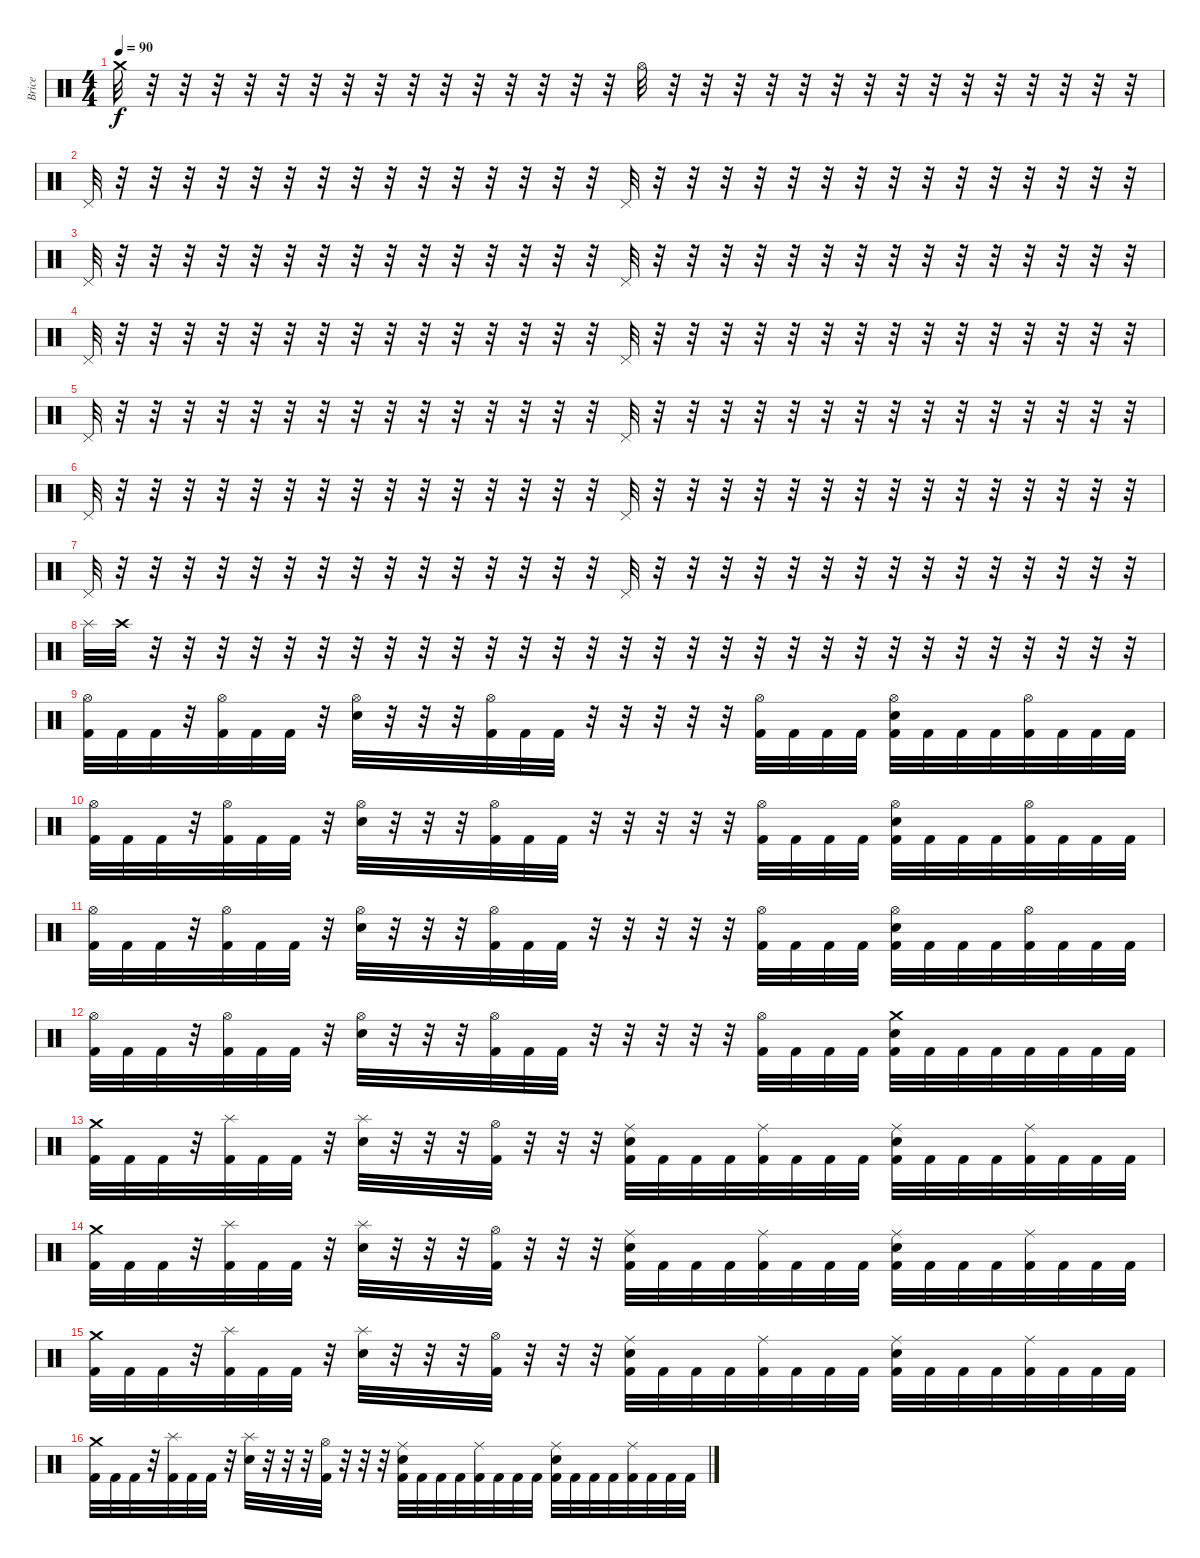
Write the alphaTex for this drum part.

\track ("Brice" "Brice") {instrument percussion}
\staff {score}
\articulation defaults
\ts (4 4)
\tempo 90
\clef neutral
\ks c "Crash medium (hit)".32{dy f}
r.32 r.32 r.32 r.32 r.32 r.32 r.32 r.32 r.32 r.32 r.32 r.32 r.32 r.32 r.32 "Hi-Hat (open)".32 r.32 r.32 r.32 r.32 r.32 r.32 r.32 r.32 r.32 r.32 r.32 r.32 r.32 r.32 r.32 |
"Pedal Hi-Hat (hit)".32 r.32 r.32 r.32 r.32 r.32 r.32 r.32 r.32 r.32 r.32 r.32 r.32 r.32 r.32 r.32 "Pedal Hi-Hat (hit)".32 r.32 r.32 r.32 r.32 r.32 r.32 r.32 r.32 r.32 r.32 r.32 r.32 r.32 r.32 r.32 |
"Pedal Hi-Hat (hit)".32 r.32 r.32 r.32 r.32 r.32 r.32 r.32 r.32 r.32 r.32 r.32 r.32 r.32 r.32 r.32 "Pedal Hi-Hat (hit)".32 r.32 r.32 r.32 r.32 r.32 r.32 r.32 r.32 r.32 r.32 r.32 r.32 r.32 r.32 r.32 |
"Pedal Hi-Hat (hit)".32 r.32 r.32 r.32 r.32 r.32 r.32 r.32 r.32 r.32 r.32 r.32 r.32 r.32 r.32 r.32 "Pedal Hi-Hat (hit)".32 r.32 r.32 r.32 r.32 r.32 r.32 r.32 r.32 r.32 r.32 r.32 r.32 r.32 r.32 r.32 |
"Pedal Hi-Hat (hit)".32 r.32 r.32 r.32 r.32 r.32 r.32 r.32 r.32 r.32 r.32 r.32 r.32 r.32 r.32 r.32 "Pedal Hi-Hat (hit)".32 r.32 r.32 r.32 r.32 r.32 r.32 r.32 r.32 r.32 r.32 r.32 r.32 r.32 r.32 r.32 |
"Pedal Hi-Hat (hit)".32 r.32 r.32 r.32 r.32 r.32 r.32 r.32 r.32 r.32 r.32 r.32 r.32 r.32 r.32 r.32 "Pedal Hi-Hat (hit)".32 r.32 r.32 r.32 r.32 r.32 r.32 r.32 r.32 r.32 r.32 r.32 r.32 r.32 r.32 r.32 |
"Pedal Hi-Hat (hit)".32 r.32 r.32 r.32 r.32 r.32 r.32 r.32 r.32 r.32 r.32 r.32 r.32 r.32 r.32 r.32 "Pedal Hi-Hat (hit)".32 r.32 r.32 r.32 r.32 r.32 r.32 r.32 r.32 r.32 r.32 r.32 r.32 r.32 r.32 r.32 |
"Splash (hit)".32 "Crash high (hit)".32 r.32 r.32 r.32 r.32 r.32 r.32 r.32 r.32 r.32 r.32 r.32 r.32 r.32 r.32 r.32 r.32 r.32 r.32 r.32 r.32 r.32 r.32 r.32 r.32 r.32 r.32 r.32 r.32 r.32 r.32 |
("Hi-Hat (open)" "Kick (hit) 2").32 "Kick (hit) 2".32 "Kick (hit) 2".32 r.32 ("Hi-Hat (open)" "Kick (hit) 2").32 "Kick (hit) 2".32 "Kick (hit) 2".32 r.32 ("Hi-Hat (open)" "Electric Snare (hit)").32 r.32 r.32 r.32 ("Hi-Hat (open)" "Kick (hit) 2").32 "Kick (hit) 2".32 "Kick (hit) 2".32 r.32 r.32 r.32 r.32 r.32 ("Hi-Hat (open)" "Kick (hit) 2").32 "Kick (hit) 2".32 "Kick (hit) 2".32 "Kick (hit) 2".32 ("Hi-Hat (open)" "Electric Snare (hit)" "Kick (hit) 2").32 "Kick (hit) 2".32 "Kick (hit) 2".32 "Kick (hit) 2".32 ("Hi-Hat (open)" "Kick (hit) 2").32 "Kick (hit) 2".32 "Kick (hit) 2".32 "Kick (hit) 2".32 |
("Hi-Hat (open)" "Kick (hit) 2").32 "Kick (hit) 2".32 "Kick (hit) 2".32 r.32 ("Hi-Hat (open)" "Kick (hit) 2").32 "Kick (hit) 2".32 "Kick (hit) 2".32 r.32 ("Hi-Hat (open)" "Electric Snare (hit)").32 r.32 r.32 r.32 ("Hi-Hat (open)" "Kick (hit) 2").32 "Kick (hit) 2".32 "Kick (hit) 2".32 r.32 r.32 r.32 r.32 r.32 ("Hi-Hat (open)" "Kick (hit) 2").32 "Kick (hit) 2".32 "Kick (hit) 2".32 "Kick (hit) 2".32 ("Hi-Hat (open)" "Electric Snare (hit)" "Kick (hit) 2").32 "Kick (hit) 2".32 "Kick (hit) 2".32 "Kick (hit) 2".32 ("Hi-Hat (open)" "Kick (hit) 2").32 "Kick (hit) 2".32 "Kick (hit) 2".32 "Kick (hit) 2".32 |
("Hi-Hat (open)" "Kick (hit) 2").32 "Kick (hit) 2".32 "Kick (hit) 2".32 r.32 ("Hi-Hat (open)" "Kick (hit) 2").32 "Kick (hit) 2".32 "Kick (hit) 2".32 r.32 ("Hi-Hat (open)" "Electric Snare (hit)").32 r.32 r.32 r.32 ("Hi-Hat (open)" "Kick (hit) 2").32 "Kick (hit) 2".32 "Kick (hit) 2".32 r.32 r.32 r.32 r.32 r.32 ("Hi-Hat (open)" "Kick (hit) 2").32 "Kick (hit) 2".32 "Kick (hit) 2".32 "Kick (hit) 2".32 ("Hi-Hat (open)" "Electric Snare (hit)" "Kick (hit) 2").32 "Kick (hit) 2".32 "Kick (hit) 2".32 "Kick (hit) 2".32 ("Hi-Hat (open)" "Kick (hit) 2").32 "Kick (hit) 2".32 "Kick (hit) 2".32 "Kick (hit) 2".32 |
("Hi-Hat (open)" "Kick (hit) 2").32 "Kick (hit) 2".32 "Kick (hit) 2".32 r.32 ("Hi-Hat (open)" "Kick (hit) 2").32 "Kick (hit) 2".32 "Kick (hit) 2".32 r.32 ("Hi-Hat (open)" "Electric Snare (hit)").32 r.32 r.32 r.32 ("Hi-Hat (open)" "Kick (hit) 2").32 "Kick (hit) 2".32 "Kick (hit) 2".32 r.32 r.32 r.32 r.32 r.32 ("Hi-Hat (open)" "Kick (hit) 2").32 "Kick (hit) 2".32 "Kick (hit) 2".32 "Kick (hit) 2".32 ("Crash medium (hit)" "Electric Snare (hit)" "Kick (hit) 2").32 "Kick (hit) 2".32 "Kick (hit) 2".32 "Kick (hit) 2".32 "Kick (hit) 2".32 "Kick (hit) 2".32 "Kick (hit) 2".32 "Kick (hit) 2".32 |
("Crash medium (hit)" "Kick (hit) 2").32 "Kick (hit) 2".32 "Kick (hit) 2".32 r.32 ("Splash (hit)" "Kick (hit) 2").32 "Kick (hit) 2".32 "Kick (hit) 2".32 r.32 ("Splash (hit)" "Electric Snare (hit)").32 r.32 r.32 r.32 ("Hi-Hat (open)" "Kick (hit) 2").32 r.32 r.32 r.32 ("Ride (middle)" "Electric Snare (hit)" "Kick (hit) 2").32 "Kick (hit) 2".32 "Kick (hit) 2".32 "Kick (hit) 2".32 ("Ride (middle)" "Kick (hit) 2").32 "Kick (hit) 2".32 "Kick (hit) 2".32 "Kick (hit) 2".32 ("Ride (middle)" "Electric Snare (hit)" "Kick (hit) 2").32 "Kick (hit) 2".32 "Kick (hit) 2".32 "Kick (hit) 2".32 ("Ride (middle)" "Kick (hit) 2").32 "Kick (hit) 2".32 "Kick (hit) 2".32 "Kick (hit) 2".32 |
("Crash medium (hit)" "Kick (hit) 2").32 "Kick (hit) 2".32 "Kick (hit) 2".32 r.32 ("Splash (hit)" "Kick (hit) 2").32 "Kick (hit) 2".32 "Kick (hit) 2".32 r.32 ("Splash (hit)" "Electric Snare (hit)").32 r.32 r.32 r.32 ("Hi-Hat (open)" "Kick (hit) 2").32 r.32 r.32 r.32 ("Ride (middle)" "Electric Snare (hit)" "Kick (hit) 2").32 "Kick (hit) 2".32 "Kick (hit) 2".32 "Kick (hit) 2".32 ("Ride (middle)" "Kick (hit) 2").32 "Kick (hit) 2".32 "Kick (hit) 2".32 "Kick (hit) 2".32 ("Ride (middle)" "Electric Snare (hit)" "Kick (hit) 2").32 "Kick (hit) 2".32 "Kick (hit) 2".32 "Kick (hit) 2".32 ("Ride (middle)" "Kick (hit) 2").32 "Kick (hit) 2".32 "Kick (hit) 2".32 "Kick (hit) 2".32 |
("Crash medium (hit)" "Kick (hit) 2").32 "Kick (hit) 2".32 "Kick (hit) 2".32 r.32 ("Splash (hit)" "Kick (hit) 2").32 "Kick (hit) 2".32 "Kick (hit) 2".32 r.32 ("Splash (hit)" "Electric Snare (hit)").32 r.32 r.32 r.32 ("Hi-Hat (open)" "Kick (hit) 2").32 r.32 r.32 r.32 ("Ride (middle)" "Electric Snare (hit)" "Kick (hit) 2").32 "Kick (hit) 2".32 "Kick (hit) 2".32 "Kick (hit) 2".32 ("Ride (middle)" "Kick (hit) 2").32 "Kick (hit) 2".32 "Kick (hit) 2".32 "Kick (hit) 2".32 ("Ride (middle)" "Electric Snare (hit)" "Kick (hit) 2").32 "Kick (hit) 2".32 "Kick (hit) 2".32 "Kick (hit) 2".32 ("Ride (middle)" "Kick (hit) 2").32 "Kick (hit) 2".32 "Kick (hit) 2".32 "Kick (hit) 2".32 |
("Crash medium (hit)" "Kick (hit) 2").32 "Kick (hit) 2".32 "Kick (hit) 2".32 r.32 ("Splash (hit)" "Kick (hit) 2").32 "Kick (hit) 2".32 "Kick (hit) 2".32 r.32 ("Splash (hit)" "Electric Snare (hit)").32 r.32 r.32 r.32 ("Hi-Hat (open)" "Kick (hit) 2").32 r.32 r.32 r.32 ("Ride (middle)" "Electric Snare (hit)" "Kick (hit) 2").32 "Kick (hit) 2".32 "Kick (hit) 2".32 "Kick (hit) 2".32 ("Ride (middle)" "Kick (hit) 2").32 "Kick (hit) 2".32 "Kick (hit) 2".32 "Kick (hit) 2".32 ("Ride (middle)" "Electric Snare (hit)" "Kick (hit) 2").32 "Kick (hit) 2".32 "Kick (hit) 2".32 "Kick (hit) 2".32 ("Ride (middle)" "Kick (hit) 2").32 "Kick (hit) 2".32 "Kick (hit) 2".32 "Kick (hit) 2".32
